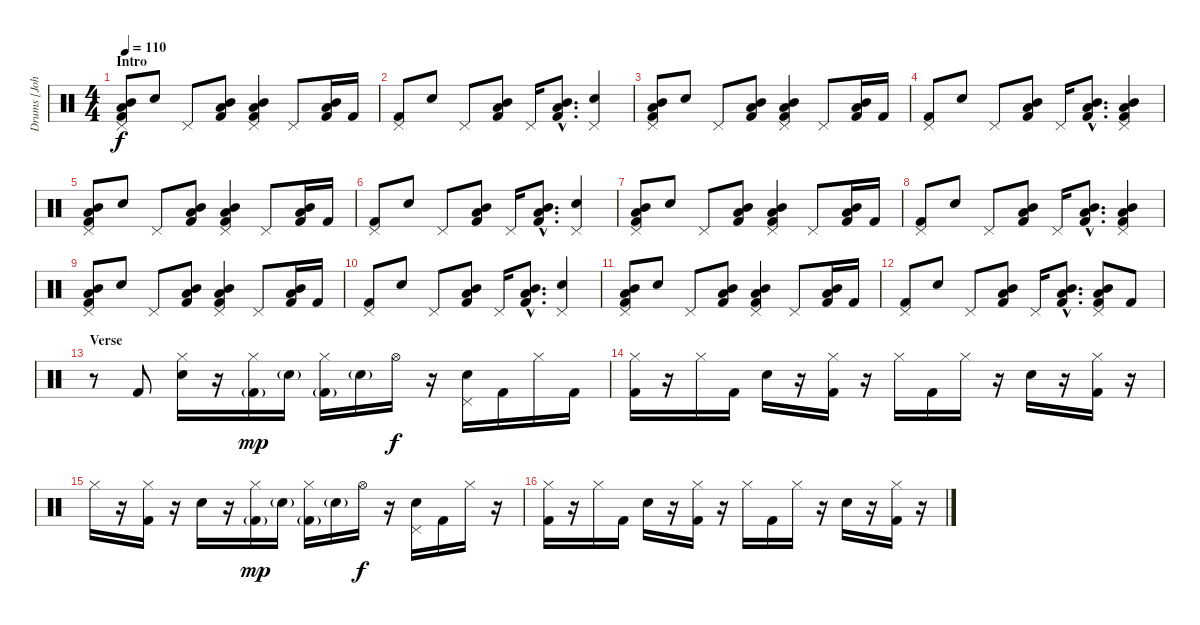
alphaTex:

\track ("Drums [John Otto]" "Drums [Joh") {instrument percussion}
\staff {score}
\articulation defaults
\ts (4 4)
\section ("" "Intro")
\tempo 110
\clef neutral
\ks c
("Pedal Hi-Hat (hit)" "Low Tom (hit)" "Mid Tom (hit)" "Kick (hit) 2").8{dy f} "Electric Snare (hit)".8 "Pedal Hi-Hat (hit)".8 ("Low Tom (hit)" "Mid Tom (hit)" "Kick (hit) 2").8 ("Pedal Hi-Hat (hit)" "Low Tom (hit)" "Mid Tom (hit)" "Kick (hit) 2").4 "Pedal Hi-Hat (hit)".8 ("Low Tom (hit)" "Mid Tom (hit)" "Kick (hit) 2").16 "Kick (hit) 2".16 |
("Pedal Hi-Hat (hit)" "Kick (hit) 2").8 "Electric Snare (hit)".8 "Pedal Hi-Hat (hit)".8 ("Low Tom (hit)" "Mid Tom (hit)" "Kick (hit) 2").8 "Pedal Hi-Hat (hit)".16 ("Low Tom (hit)"{hac} "Mid Tom (hit)"{hac} "Kick (hit) 2"{hac}).8{d} ("Pedal Hi-Hat (hit)" "Electric Snare (hit)").4 |
("Pedal Hi-Hat (hit)" "Low Tom (hit)" "Mid Tom (hit)" "Kick (hit) 2").8 "Electric Snare (hit)".8 "Pedal Hi-Hat (hit)".8 ("Low Tom (hit)" "Mid Tom (hit)" "Kick (hit) 2").8 ("Pedal Hi-Hat (hit)" "Low Tom (hit)" "Mid Tom (hit)" "Kick (hit) 2").4 "Pedal Hi-Hat (hit)".8 ("Low Tom (hit)" "Mid Tom (hit)" "Kick (hit) 2").16 "Kick (hit) 2".16 |
("Pedal Hi-Hat (hit)" "Kick (hit) 2").8 "Electric Snare (hit)".8 "Pedal Hi-Hat (hit)".8 ("Low Tom (hit)" "Mid Tom (hit)" "Kick (hit) 2").8 "Pedal Hi-Hat (hit)".16 ("Low Tom (hit)"{hac} "Mid Tom (hit)"{hac} "Kick (hit) 2"{hac}).8{d} ("Pedal Hi-Hat (hit)" "Low Tom (hit)" "Mid Tom (hit)" "Kick (hit) 2").4 |
("Pedal Hi-Hat (hit)" "Low Tom (hit)" "Mid Tom (hit)" "Kick (hit) 2").8 "Electric Snare (hit)".8 "Pedal Hi-Hat (hit)".8 ("Low Tom (hit)" "Mid Tom (hit)" "Kick (hit) 2").8 ("Pedal Hi-Hat (hit)" "Low Tom (hit)" "Mid Tom (hit)" "Kick (hit) 2").4 "Pedal Hi-Hat (hit)".8 ("Low Tom (hit)" "Mid Tom (hit)" "Kick (hit) 2").16 "Kick (hit) 2".16 |
("Pedal Hi-Hat (hit)" "Kick (hit) 2").8 "Electric Snare (hit)".8 "Pedal Hi-Hat (hit)".8 ("Low Tom (hit)" "Mid Tom (hit)" "Kick (hit) 2").8 "Pedal Hi-Hat (hit)".16 ("Low Tom (hit)"{hac} "Mid Tom (hit)"{hac} "Kick (hit) 2"{hac}).8{d} ("Pedal Hi-Hat (hit)" "Electric Snare (hit)").4 |
("Pedal Hi-Hat (hit)" "Low Tom (hit)" "Mid Tom (hit)" "Kick (hit) 2").8 "Electric Snare (hit)".8 "Pedal Hi-Hat (hit)".8 ("Low Tom (hit)" "Mid Tom (hit)" "Kick (hit) 2").8 ("Pedal Hi-Hat (hit)" "Low Tom (hit)" "Mid Tom (hit)" "Kick (hit) 2").4 "Pedal Hi-Hat (hit)".8 ("Low Tom (hit)" "Mid Tom (hit)" "Kick (hit) 2").16 "Kick (hit) 2".16 |
("Pedal Hi-Hat (hit)" "Kick (hit) 2").8 "Electric Snare (hit)".8 "Pedal Hi-Hat (hit)".8 ("Low Tom (hit)" "Mid Tom (hit)" "Kick (hit) 2").8 "Pedal Hi-Hat (hit)".16 ("Low Tom (hit)"{hac} "Mid Tom (hit)"{hac} "Kick (hit) 2"{hac}).8{d} ("Pedal Hi-Hat (hit)" "Low Tom (hit)" "Mid Tom (hit)" "Kick (hit) 2").4 |
("Pedal Hi-Hat (hit)" "Low Tom (hit)" "Mid Tom (hit)" "Kick (hit) 2").8 "Electric Snare (hit)".8 "Pedal Hi-Hat (hit)".8 ("Low Tom (hit)" "Mid Tom (hit)" "Kick (hit) 2").8 ("Pedal Hi-Hat (hit)" "Low Tom (hit)" "Mid Tom (hit)" "Kick (hit) 2").4 "Pedal Hi-Hat (hit)".8 ("Low Tom (hit)" "Mid Tom (hit)" "Kick (hit) 2").16 "Kick (hit) 2".16 |
("Pedal Hi-Hat (hit)" "Kick (hit) 2").8 "Electric Snare (hit)".8 "Pedal Hi-Hat (hit)".8 ("Low Tom (hit)" "Mid Tom (hit)" "Kick (hit) 2").8 "Pedal Hi-Hat (hit)".16 ("Low Tom (hit)"{hac} "Mid Tom (hit)"{hac} "Kick (hit) 2"{hac}).8{d} ("Pedal Hi-Hat (hit)" "Electric Snare (hit)").4 |
("Pedal Hi-Hat (hit)" "Low Tom (hit)" "Mid Tom (hit)" "Kick (hit) 2").8 "Electric Snare (hit)".8 "Pedal Hi-Hat (hit)".8 ("Low Tom (hit)" "Mid Tom (hit)" "Kick (hit) 2").8 ("Pedal Hi-Hat (hit)" "Low Tom (hit)" "Mid Tom (hit)" "Kick (hit) 2").4 "Pedal Hi-Hat (hit)".8 ("Low Tom (hit)" "Mid Tom (hit)" "Kick (hit) 2").16 "Kick (hit) 2".16 |
("Pedal Hi-Hat (hit)" "Kick (hit) 2").8 "Electric Snare (hit)".8 "Pedal Hi-Hat (hit)".8 ("Low Tom (hit)" "Mid Tom (hit)" "Kick (hit) 2").8 "Pedal Hi-Hat (hit)".16 ("Low Tom (hit)"{hac} "Mid Tom (hit)"{hac} "Kick (hit) 2"{hac}).8{d} ("Pedal Hi-Hat (hit)" "Low Tom (hit)" "Mid Tom (hit)" "Kick (hit) 2").8 "Kick (hit) 2".8 |
\section ("" "Verse")
r.8 "Kick (hit) 2".8 ("Hi-Hat (closed)" "Electric Snare (hit)").16 r.16 ("Hi-Hat (closed)" "Kick (hit) 2"{g}).16{dy mp} "Electric Snare (hit)"{g}.16 ("Hi-Hat (closed)" "Kick (hit) 2"{g}).16 "Electric Snare (hit)"{g}.16 "Hi-Hat (open)".16{dy f} r.16 ("Pedal Hi-Hat (hit)" "Electric Snare (hit)").16 "Kick (hit) 2".16 "Hi-Hat (closed)".16 "Kick (hit) 2".16 |
("Hi-Hat (closed)" "Kick (hit) 2").16 r.16 "Hi-Hat (closed)".16 "Kick (hit) 2".16 "Electric Snare (hit)".16 r.16 ("Hi-Hat (closed)" "Kick (hit) 2").16 r.16 "Hi-Hat (closed)".16 "Kick (hit) 2".16 "Hi-Hat (closed)".16 r.16 "Electric Snare (hit)".16 r.16 ("Hi-Hat (closed)" "Kick (hit) 2").16 r.16 |
"Hi-Hat (closed)".16 r.16 ("Hi-Hat (closed)" "Kick (hit) 2").16 r.16 "Electric Snare (hit)".16 r.16 ("Hi-Hat (closed)" "Kick (hit) 2"{g}).16{dy mp} "Electric Snare (hit)"{g}.16 ("Hi-Hat (closed)" "Kick (hit) 2"{g}).16 "Electric Snare (hit)"{g}.16 "Hi-Hat (open)".16{dy f} r.16 ("Pedal Hi-Hat (hit)" "Electric Snare (hit)").16 "Kick (hit) 2".16 "Hi-Hat (closed)".16 r.16 |
("Hi-Hat (closed)" "Kick (hit) 2").16 r.16 "Hi-Hat (closed)".16 "Kick (hit) 2".16 "Electric Snare (hit)".16 r.16 ("Hi-Hat (closed)" "Kick (hit) 2").16 r.16 "Hi-Hat (closed)".16 "Kick (hit) 2".16 "Hi-Hat (closed)".16 r.16 "Electric Snare (hit)".16 r.16 ("Hi-Hat (closed)" "Kick (hit) 2").16 r.16
